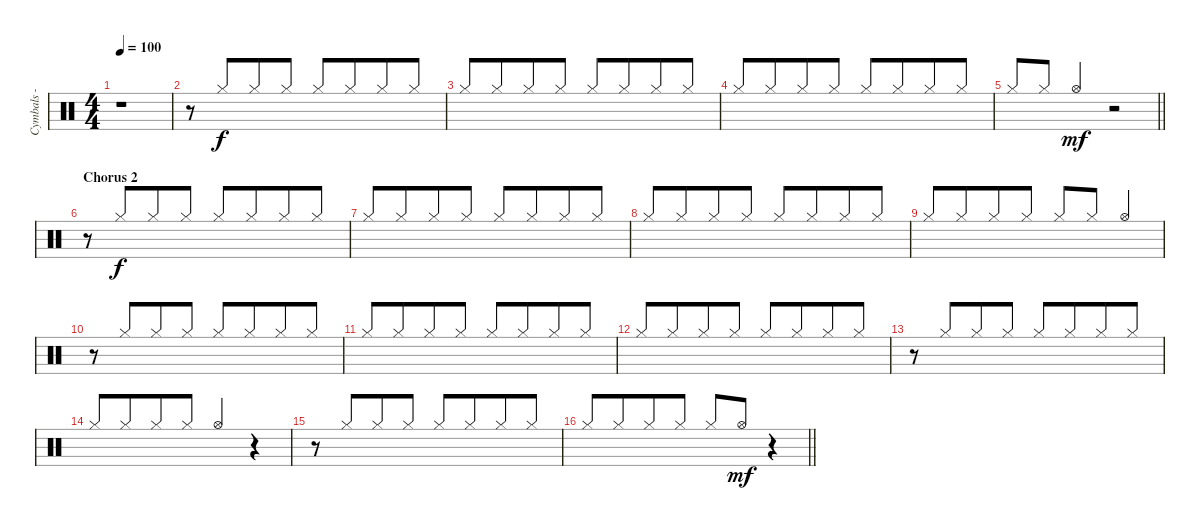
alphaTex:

\track ("Cymbals - Hi-Hat" "Cymbals - ") {instrument percussion}
\staff {score}
\articulation defaults
\ts (4 4)
\tempo 100
\clef neutral
\ks c
r.1{dy f} |
r.8 "Hi-Hat (closed)".8{beam Up beam merge} "Hi-Hat (closed)".8{beam Up} "Hi-Hat (closed)".8{beam Up} "Hi-Hat (closed)".8{beam Up} "Hi-Hat (closed)".8{beam Up beam merge} "Hi-Hat (closed)".8{beam Up} "Hi-Hat (closed)".8{beam Up} |
"Hi-Hat (closed)".8{beam Up} "Hi-Hat (closed)".8{beam Up beam merge} "Hi-Hat (closed)".8{beam Up} "Hi-Hat (closed)".8{beam Up} "Hi-Hat (closed)".8{beam Up} "Hi-Hat (closed)".8{beam Up beam merge} "Hi-Hat (closed)".8{beam Up} "Hi-Hat (closed)".8{beam Up} |
"Hi-Hat (closed)".8{beam Up} "Hi-Hat (closed)".8{beam Up beam merge} "Hi-Hat (closed)".8{beam Up} "Hi-Hat (closed)".8{beam Up} "Hi-Hat (closed)".8{beam Up} "Hi-Hat (closed)".8{beam Up beam merge} "Hi-Hat (closed)".8{beam Up} "Hi-Hat (closed)".8{beam Up} |
\barLineRight lightlight "Hi-Hat (closed)".8{beam Up} "Hi-Hat (closed)".8{beam Up beam merge} "Hi-Hat (open)".4{dy mf beam Up}
r.2 |
\section ("" "Chorus 2")
r.8 "Hi-Hat (closed)".8{dy f beam Up beam merge} "Hi-Hat (closed)".8{beam Up} "Hi-Hat (closed)".8{beam Up} "Hi-Hat (closed)".8{beam Up} "Hi-Hat (closed)".8{beam Up beam merge} "Hi-Hat (closed)".8{beam Up} "Hi-Hat (closed)".8{beam Up} |
"Hi-Hat (closed)".8{beam Up} "Hi-Hat (closed)".8{beam Up beam merge} "Hi-Hat (closed)".8{beam Up} "Hi-Hat (closed)".8{beam Up} "Hi-Hat (closed)".8{beam Up} "Hi-Hat (closed)".8{beam Up beam merge} "Hi-Hat (closed)".8{beam Up} "Hi-Hat (closed)".8{beam Up} |
"Hi-Hat (closed)".8{beam Up} "Hi-Hat (closed)".8{beam Up beam merge} "Hi-Hat (closed)".8{beam Up} "Hi-Hat (closed)".8{beam Up} "Hi-Hat (closed)".8{beam Up} "Hi-Hat (closed)".8{beam Up beam merge} "Hi-Hat (closed)".8{beam Up} "Hi-Hat (closed)".8{beam Up} |
"Hi-Hat (closed)".8{beam Up} "Hi-Hat (closed)".8{beam Up beam merge} "Hi-Hat (closed)".8{beam Up} "Hi-Hat (closed)".8{beam Up} "Hi-Hat (closed)".8{beam Up} "Hi-Hat (closed)".8{beam Up beam merge} "Hi-Hat (open)".4{beam Up} |
r.8 "Hi-Hat (closed)".8{beam Up beam merge} "Hi-Hat (closed)".8{beam Up} "Hi-Hat (closed)".8{beam Up} "Hi-Hat (closed)".8{beam Up} "Hi-Hat (closed)".8{beam Up beam merge} "Hi-Hat (closed)".8{beam Up} "Hi-Hat (closed)".8{beam Up} |
"Hi-Hat (closed)".8{beam Up} "Hi-Hat (closed)".8{beam Up beam merge} "Hi-Hat (closed)".8{beam Up} "Hi-Hat (closed)".8{beam Up} "Hi-Hat (closed)".8{beam Up} "Hi-Hat (closed)".8{beam Up beam merge} "Hi-Hat (closed)".8{beam Up} "Hi-Hat (closed)".8{beam Up} |
"Hi-Hat (closed)".8{beam Up} "Hi-Hat (closed)".8{beam Up beam merge} "Hi-Hat (closed)".8{beam Up} "Hi-Hat (closed)".8{beam Up} "Hi-Hat (closed)".8{beam Up} "Hi-Hat (closed)".8{beam Up beam merge} "Hi-Hat (closed)".8{beam Up} "Hi-Hat (closed)".8{beam Up} |
r.8 "Hi-Hat (closed)".8{beam Up beam merge} "Hi-Hat (closed)".8{beam Up} "Hi-Hat (closed)".8{beam Up} "Hi-Hat (closed)".8{beam Up} "Hi-Hat (closed)".8{beam Up beam merge} "Hi-Hat (closed)".8{beam Up} "Hi-Hat (closed)".8{beam Up} |
"Hi-Hat (closed)".8{beam Up} "Hi-Hat (closed)".8{beam Up beam merge} "Hi-Hat (closed)".8{beam Up} "Hi-Hat (closed)".8{beam Up} "Hi-Hat (open)".4{beam Up} r.4 |
r.8 "Hi-Hat (closed)".8{beam Up beam merge} "Hi-Hat (closed)".8{beam Up} "Hi-Hat (closed)".8{beam Up} "Hi-Hat (closed)".8{beam Up} "Hi-Hat (closed)".8{beam Up beam merge} "Hi-Hat (closed)".8{beam Up} "Hi-Hat (closed)".8{beam Up} |
\barLineRight lightlight "Hi-Hat (closed)".8{beam Up} "Hi-Hat (closed)".8{beam Up beam merge} "Hi-Hat (closed)".8{beam Up} "Hi-Hat (closed)".8{beam Up} "Hi-Hat (closed)".8{beam Up} "Hi-Hat (open)".8{dy mf beam Up}
r.4
